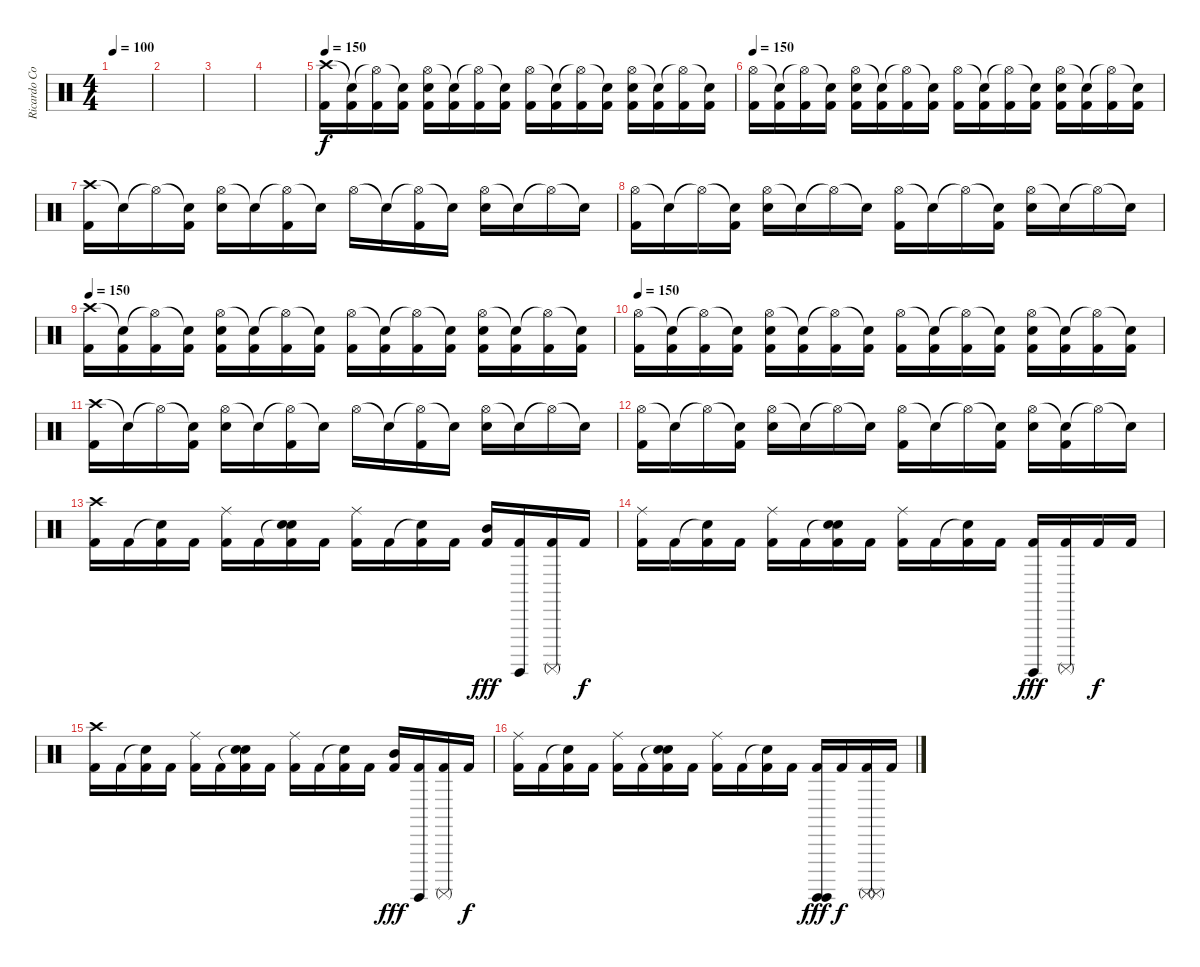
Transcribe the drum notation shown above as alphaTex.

\track ("Ricardo Confessori" "Ricardo Co") {instrument percussion}
\staff {score}
\articulation defaults
\ts (4 4)
\tempo 100
\clef neutral
\ks c
|
|
|
|
\tempo 150
("Crash high (hit)" "Kick (hit) 2").16 ("Snare (hit)"{t} "Kick (hit) 2").16 ("Hi-Hat (open)"{t} "Kick (hit) 2").16 ("Snare (hit)"{t} "Kick (hit) 2").16 ("Hi-Hat (open)" "Electric Snare (hit)" "Kick (hit) 2").16 ("Snare (hit)"{t} "Kick (hit) 2").16 ("Hi-Hat (open)"{t} "Kick (hit) 2").16 ("Snare (hit)"{t} "Kick (hit) 2").16 ("Hi-Hat (open)" "Kick (hit) 2").16 ("Snare (hit)"{t} "Kick (hit) 2").16 ("Hi-Hat (open)"{t} "Kick (hit) 2").16 ("Snare (hit)"{t} "Kick (hit) 2").16 ("Hi-Hat (open)" "Electric Snare (hit)" "Kick (hit) 2").16 ("Snare (hit)"{t} "Kick (hit) 2").16 ("Hi-Hat (open)"{t} "Kick (hit) 2").16 ("Snare (hit)"{t} "Kick (hit) 2").16 |
\tempo 150
("Hi-Hat (open)" "Kick (hit) 2").16 ("Snare (hit)"{t} "Kick (hit) 2").16 ("Hi-Hat (open)"{t} "Kick (hit) 2").16 ("Snare (hit)"{t} "Kick (hit) 2").16 ("Hi-Hat (open)" "Electric Snare (hit)" "Kick (hit) 2").16 ("Snare (hit)"{t} "Kick (hit) 2").16 ("Hi-Hat (open)"{t} "Kick (hit) 2").16 ("Snare (hit)"{t} "Kick (hit) 2").16 ("Hi-Hat (open)" "Kick (hit) 2").16 ("Snare (hit)"{t} "Kick (hit) 2").16 ("Hi-Hat (open)"{t} "Kick (hit) 2").16 ("Snare (hit)"{t} "Kick (hit) 2").16 ("Hi-Hat (open)" "Electric Snare (hit)" "Kick (hit) 2").16 ("Snare (hit)"{t} "Kick (hit) 2").16 ("Hi-Hat (open)"{t} "Kick (hit) 2").16 ("Snare (hit)"{t} "Kick (hit) 2").16 |
("Crash high (hit)" "Kick (hit) 2").16 "Snare (hit)"{t}.16 "Hi-Hat (open)"{t}.16 ("Snare (hit)"{t} "Kick (hit) 2").16 ("Hi-Hat (open)" "Electric Snare (hit)").16 "Snare (hit)"{t}.16 ("Hi-Hat (open)"{t} "Kick (hit) 2").16 "Snare (hit)"{t}.16 "Hi-Hat (open)".16 "Snare (hit)"{t}.16 ("Hi-Hat (open)"{t} "Kick (hit) 2").16 "Snare (hit)"{t}.16 ("Hi-Hat (open)" "Electric Snare (hit)").16 "Snare (hit)"{t}.16 "Hi-Hat (open)"{t}.16 "Snare (hit)"{t}.16 |
("Hi-Hat (open)" "Kick (hit) 2").16 "Snare (hit)"{t}.16 "Hi-Hat (open)"{t}.16 ("Snare (hit)"{t} "Kick (hit) 2").16 ("Hi-Hat (open)" "Electric Snare (hit)").16 "Snare (hit)"{t}.16 "Hi-Hat (open)"{t}.16 "Snare (hit)"{t}.16 ("Hi-Hat (open)" "Kick (hit) 2").16 "Snare (hit)"{t}.16 "Hi-Hat (open)"{t}.16 ("Snare (hit)"{t} "Kick (hit) 2").16 ("Hi-Hat (open)" "Electric Snare (hit)").16 "Snare (hit)"{t}.16 "Hi-Hat (open)"{t}.16 "Snare (hit)"{t}.16 |
\tempo 150
("Crash high (hit)" "Kick (hit) 2").16 ("Snare (hit)"{t} "Kick (hit) 2").16 ("Hi-Hat (open)"{t} "Kick (hit) 2").16 ("Snare (hit)"{t} "Kick (hit) 2").16 ("Hi-Hat (open)" "Electric Snare (hit)" "Kick (hit) 2").16 ("Snare (hit)"{t} "Kick (hit) 2").16 ("Hi-Hat (open)"{t} "Kick (hit) 2").16 ("Snare (hit)"{t} "Kick (hit) 2").16 ("Hi-Hat (open)" "Kick (hit) 2").16 ("Snare (hit)"{t} "Kick (hit) 2").16 ("Hi-Hat (open)"{t} "Kick (hit) 2").16 ("Snare (hit)"{t} "Kick (hit) 2").16 ("Hi-Hat (open)" "Electric Snare (hit)" "Kick (hit) 2").16 ("Snare (hit)"{t} "Kick (hit) 2").16 ("Hi-Hat (open)"{t} "Kick (hit) 2").16 ("Snare (hit)"{t} "Kick (hit) 2").16 |
\tempo 150
("Hi-Hat (open)" "Kick (hit) 2").16 ("Snare (hit)"{t} "Kick (hit) 2").16 ("Hi-Hat (open)"{t} "Kick (hit) 2").16 ("Snare (hit)"{t} "Kick (hit) 2").16 ("Hi-Hat (open)" "Electric Snare (hit)" "Kick (hit) 2").16 ("Snare (hit)"{t} "Kick (hit) 2").16 ("Hi-Hat (open)"{t} "Kick (hit) 2").16 ("Snare (hit)"{t} "Kick (hit) 2").16 ("Hi-Hat (open)" "Kick (hit) 2").16 ("Snare (hit)"{t} "Kick (hit) 2").16 ("Hi-Hat (open)"{t} "Kick (hit) 2").16 ("Snare (hit)"{t} "Kick (hit) 2").16 ("Hi-Hat (open)" "Electric Snare (hit)" "Kick (hit) 2").16 ("Snare (hit)"{t} "Kick (hit) 2").16 ("Hi-Hat (open)"{t} "Kick (hit) 2").16 ("Snare (hit)"{t} "Kick (hit) 2").16 |
("Crash high (hit)" "Kick (hit) 2").16 "Snare (hit)"{t}.16 "Hi-Hat (open)"{t}.16 ("Snare (hit)"{t} "Kick (hit) 2").16 ("Hi-Hat (open)" "Electric Snare (hit)").16 "Snare (hit)"{t}.16 ("Hi-Hat (open)"{t} "Kick (hit) 2").16 "Snare (hit)"{t}.16 "Hi-Hat (open)".16 "Snare (hit)"{t}.16 ("Hi-Hat (open)"{t} "Kick (hit) 2").16 "Snare (hit)"{t}.16 ("Hi-Hat (open)" "Electric Snare (hit)").16 "Snare (hit)"{t}.16 "Hi-Hat (open)"{t}.16 "Snare (hit)"{t}.16 |
("Hi-Hat (open)" "Kick (hit) 2").16 "Snare (hit)"{t}.16 "Hi-Hat (open)"{t}.16 ("Snare (hit)"{t} "Kick (hit) 2").16 ("Hi-Hat (open)" "Electric Snare (hit)").16 "Snare (hit)"{t}.16 "Hi-Hat (open)"{t}.16 "Snare (hit)"{t}.16 ("Hi-Hat (open)" "Kick (hit) 2").16 "Snare (hit)"{t}.16 "Hi-Hat (open)"{t}.16 ("Snare (hit)"{t} "Kick (hit) 2").16 ("Hi-Hat (open)" "Electric Snare (hit)").16 ("Snare (hit)"{t} "Kick (hit) 2").16 "Hi-Hat (open)"{t}.16 "Snare (hit)"{t}.16 |
("Crash high (hit)" "Kick (hit) 2").16 "Kick (hit) 2".16 ("Snare (hit)"{t} "Kick (hit) 2").16 "Kick (hit) 2".16 ("Ride (middle)" "Kick (hit) 2").16 "Kick (hit) 2".16 ("Snare (hit)"{t} "Electric Snare (hit)" "Kick (hit) 2").16 "Kick (hit) 2".16 ("Ride (middle)" "Kick (hit) 2").16 "Kick (hit) 2".16 ("Snare (hit)"{t} "Kick (hit) 2").16 "Kick (hit) 2".16 ("Mid Tom (hit)" "Kick (hit) 2").16{dy fff} ("Surdo (hit)" "Kick (hit) 2").16 ("Surdo (mute)" "Kick (hit) 2").16 "Kick (hit) 2".16{dy f} |
("Ride (middle)" "Kick (hit) 2").16 "Kick (hit) 2".16 ("Snare (hit)"{t} "Kick (hit) 2").16 "Kick (hit) 2".16 ("Ride (middle)" "Kick (hit) 2").16 "Kick (hit) 2".16 ("Snare (hit)"{t} "Electric Snare (hit)" "Kick (hit) 2").16 "Kick (hit) 2".16 ("Ride (middle)" "Kick (hit) 2").16 "Kick (hit) 2".16 ("Snare (hit)"{t} "Kick (hit) 2").16 "Kick (hit) 2".16 ("Surdo (hit)" "Kick (hit) 2").16{dy fff} ("Surdo (mute)" "Kick (hit) 2").16 "Kick (hit) 2".16{dy f} "Kick (hit) 2".16 |
("Crash high (hit)" "Kick (hit) 2").16 "Kick (hit) 2".16 ("Snare (hit)"{t} "Kick (hit) 2").16 "Kick (hit) 2".16 ("Ride (middle)" "Kick (hit) 2").16 "Kick (hit) 2".16 ("Snare (hit)"{t} "Electric Snare (hit)" "Kick (hit) 2").16 "Kick (hit) 2".16 ("Ride (middle)" "Kick (hit) 2").16 "Kick (hit) 2".16 ("Snare (hit)"{t} "Kick (hit) 2").16 "Kick (hit) 2".16 ("Mid Tom (hit)" "Kick (hit) 2").16{dy fff} ("Surdo (hit)" "Kick (hit) 2").16 ("Surdo (mute)" "Kick (hit) 2").16 "Kick (hit) 2".16{dy f} |
("Ride (middle)" "Kick (hit) 2").16 "Kick (hit) 2".16 ("Snare (hit)"{t} "Kick (hit) 2").16 "Kick (hit) 2".16 ("Ride (middle)" "Kick (hit) 2").16 "Kick (hit) 2".16 ("Snare (hit)"{t} "Electric Snare (hit)" "Kick (hit) 2").16 "Kick (hit) 2".16 ("Ride (middle)" "Kick (hit) 2").16 "Kick (hit) 2".16 ("Snare (hit)"{t} "Kick (hit) 2").16 "Kick (hit) 2".16 ("Surdo (hit)" "Surdo (hit)" "Kick (hit) 2").16{dy fff} "Kick (hit) 2".16{dy f} ("Surdo (mute)" "Surdo (mute)" "Kick (hit) 2").16 "Kick (hit) 2".16
